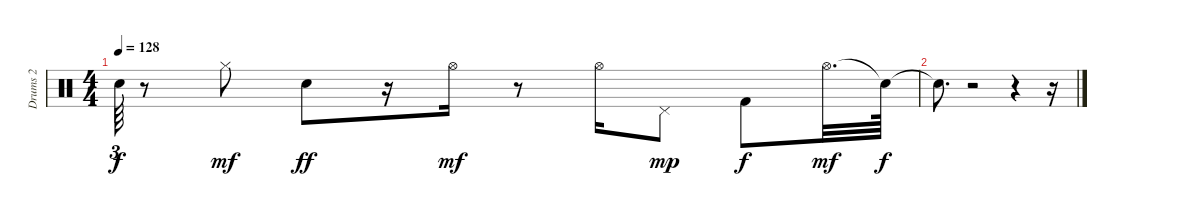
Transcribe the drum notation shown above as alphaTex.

\track ("Drums 2                             " "Drums 2   ") {instrument percussion}
\staff {score}
\articulation defaults
\ts (4 4)
\tempo 128
\clef neutral
\ks c "Snare (hit)"{t}.64{tu (3 2) dy f}
r.8 "Hi-Hat (closed)".8{dy mf} "Snare (hit) 2".8{dy ff} r.16 "Hi-Hat (open)".16{dy mf} r.8 "Hi-Hat (open)".16 "Pedal Hi-Hat (hit)".8{dy mp} "Kick (hit) 2".8{dy f} "Hi-Hat (open)".32{d dy mf} "Snare (hit)"{t}.64{dy f} |
"Snare (hit)"{t}.8{d} r.2 r.4 r.16
